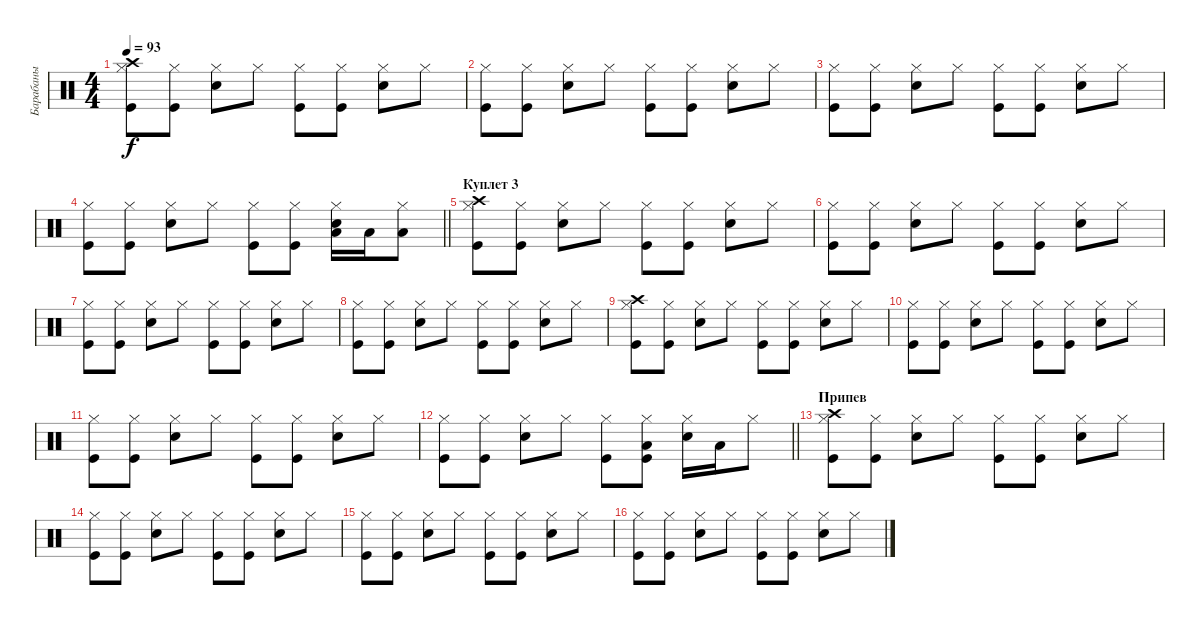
\track ("Барабаны" "Барабаны") {instrument percussion}
\staff {score}
\articulation defaults
\ts (4 4)
\tempo 93
\clef neutral
\ks c
("Kick (hit)" "Hi-Hat (closed)" "Crash high (hit)").8{dy f} ("Kick (hit)" "Hi-Hat (closed)").8 ("Snare (hit) 2" "Hi-Hat (closed)").8 "Hi-Hat (closed)".8 ("Kick (hit)" "Hi-Hat (closed)").8 ("Kick (hit)" "Hi-Hat (closed)").8 ("Snare (hit) 2" "Hi-Hat (closed)").8 "Hi-Hat (closed)".8 |
("Kick (hit)" "Hi-Hat (closed)").8 ("Kick (hit)" "Hi-Hat (closed)").8 ("Snare (hit) 2" "Hi-Hat (closed)").8 "Hi-Hat (closed)".8 ("Kick (hit)" "Hi-Hat (closed)").8 ("Kick (hit)" "Hi-Hat (closed)").8 ("Snare (hit) 2" "Hi-Hat (closed)").8 "Hi-Hat (closed)".8 |
("Kick (hit)" "Hi-Hat (closed)").8 ("Kick (hit)" "Hi-Hat (closed)").8 ("Snare (hit) 2" "Hi-Hat (closed)").8 "Hi-Hat (closed)".8 ("Kick (hit)" "Hi-Hat (closed)").8 ("Kick (hit)" "Hi-Hat (closed)").8 ("Snare (hit) 2" "Hi-Hat (closed)").8 "Hi-Hat (closed)".8 |
\barLineRight lightlight
("Kick (hit)" "Hi-Hat (closed)").8 ("Kick (hit)" "Hi-Hat (closed)").8 ("Snare (hit) 2" "Hi-Hat (closed)").8 "Hi-Hat (closed)".8 ("Kick (hit)" "Hi-Hat (closed)").8 ("Kick (hit)" "Hi-Hat (closed)").8 ("Snare (hit) 2" "Hi-Hat (closed)" "Low Tom (hit)").16 "Low Tom (hit)".16 ("Hi-Hat (closed)" "Low Tom (hit)").8 |
\section ("" "Куплет 3")
("Kick (hit)" "Hi-Hat (closed)" "Crash high (hit)").8 ("Kick (hit)" "Hi-Hat (closed)").8 ("Snare (hit) 2" "Hi-Hat (closed)").8 "Hi-Hat (closed)".8 ("Kick (hit)" "Hi-Hat (closed)").8 ("Kick (hit)" "Hi-Hat (closed)").8 ("Snare (hit) 2" "Hi-Hat (closed)").8 "Hi-Hat (closed)".8 |
("Kick (hit)" "Hi-Hat (closed)").8 ("Kick (hit)" "Hi-Hat (closed)").8 ("Snare (hit) 2" "Hi-Hat (closed)").8 "Hi-Hat (closed)".8 ("Kick (hit)" "Hi-Hat (closed)").8 ("Kick (hit)" "Hi-Hat (closed)").8 ("Snare (hit) 2" "Hi-Hat (closed)").8 "Hi-Hat (closed)".8 |
("Kick (hit)" "Hi-Hat (closed)").8 ("Kick (hit)" "Hi-Hat (closed)").8 ("Snare (hit) 2" "Hi-Hat (closed)").8 "Hi-Hat (closed)".8 ("Kick (hit)" "Hi-Hat (closed)").8 ("Kick (hit)" "Hi-Hat (closed)").8 ("Snare (hit) 2" "Hi-Hat (closed)").8 "Hi-Hat (closed)".8 |
("Kick (hit)" "Hi-Hat (closed)").8 ("Kick (hit)" "Hi-Hat (closed)").8 ("Snare (hit) 2" "Hi-Hat (closed)").8 "Hi-Hat (closed)".8 ("Kick (hit)" "Hi-Hat (closed)").8 ("Kick (hit)" "Hi-Hat (closed)").8 ("Snare (hit) 2" "Hi-Hat (closed)").8 "Hi-Hat (closed)".8 |
("Kick (hit)" "Hi-Hat (closed)" "Crash high (hit)").8 ("Kick (hit)" "Hi-Hat (closed)").8 ("Snare (hit) 2" "Hi-Hat (closed)").8 "Hi-Hat (closed)".8 ("Kick (hit)" "Hi-Hat (closed)").8 ("Kick (hit)" "Hi-Hat (closed)").8 ("Snare (hit) 2" "Hi-Hat (closed)").8 "Hi-Hat (closed)".8 |
("Kick (hit)" "Hi-Hat (closed)").8 ("Kick (hit)" "Hi-Hat (closed)").8 ("Snare (hit) 2" "Hi-Hat (closed)").8 "Hi-Hat (closed)".8 ("Kick (hit)" "Hi-Hat (closed)").8 ("Kick (hit)" "Hi-Hat (closed)").8 ("Snare (hit) 2" "Hi-Hat (closed)").8 "Hi-Hat (closed)".8 |
("Kick (hit)" "Hi-Hat (closed)").8 ("Kick (hit)" "Hi-Hat (closed)").8 ("Snare (hit) 2" "Hi-Hat (closed)").8 "Hi-Hat (closed)".8 ("Kick (hit)" "Hi-Hat (closed)").8 ("Kick (hit)" "Hi-Hat (closed)").8 ("Snare (hit) 2" "Hi-Hat (closed)").8 "Hi-Hat (closed)".8 |
\barLineRight lightlight
("Kick (hit)" "Hi-Hat (closed)").8 ("Kick (hit)" "Hi-Hat (closed)").8 ("Snare (hit) 2" "Hi-Hat (closed)").8 "Hi-Hat (closed)".8 ("Kick (hit)" "Hi-Hat (closed)").8 ("Kick (hit)" "Hi-Hat (closed)" "Low Tom (hit)").8 ("Snare (hit) 2" "Hi-Hat (closed)").16 "Low Tom (hit)".16 "Hi-Hat (closed)".8 |
\section ("" "Припев")
("Kick (hit)" "Hi-Hat (closed)" "Crash high (hit)").8 ("Kick (hit)" "Hi-Hat (closed)").8 ("Snare (hit) 2" "Hi-Hat (closed)").8 "Hi-Hat (closed)".8 ("Kick (hit)" "Hi-Hat (closed)").8 ("Kick (hit)" "Hi-Hat (closed)").8 ("Snare (hit) 2" "Hi-Hat (closed)").8 "Hi-Hat (closed)".8 |
("Kick (hit)" "Hi-Hat (closed)").8 ("Kick (hit)" "Hi-Hat (closed)").8 ("Snare (hit) 2" "Hi-Hat (closed)").8 "Hi-Hat (closed)".8 ("Kick (hit)" "Hi-Hat (closed)").8 ("Kick (hit)" "Hi-Hat (closed)").8 ("Snare (hit) 2" "Hi-Hat (closed)").8 "Hi-Hat (closed)".8 |
("Kick (hit)" "Hi-Hat (closed)").8 ("Kick (hit)" "Hi-Hat (closed)").8 ("Snare (hit) 2" "Hi-Hat (closed)").8 "Hi-Hat (closed)".8 ("Kick (hit)" "Hi-Hat (closed)").8 ("Kick (hit)" "Hi-Hat (closed)").8 ("Snare (hit) 2" "Hi-Hat (closed)").8 "Hi-Hat (closed)".8 |
("Kick (hit)" "Hi-Hat (closed)").8 ("Kick (hit)" "Hi-Hat (closed)").8 ("Snare (hit) 2" "Hi-Hat (closed)").8 "Hi-Hat (closed)".8 ("Kick (hit)" "Hi-Hat (closed)").8 ("Kick (hit)" "Hi-Hat (closed)").8 ("Snare (hit) 2" "Hi-Hat (closed)").8 "Hi-Hat (closed)".8
